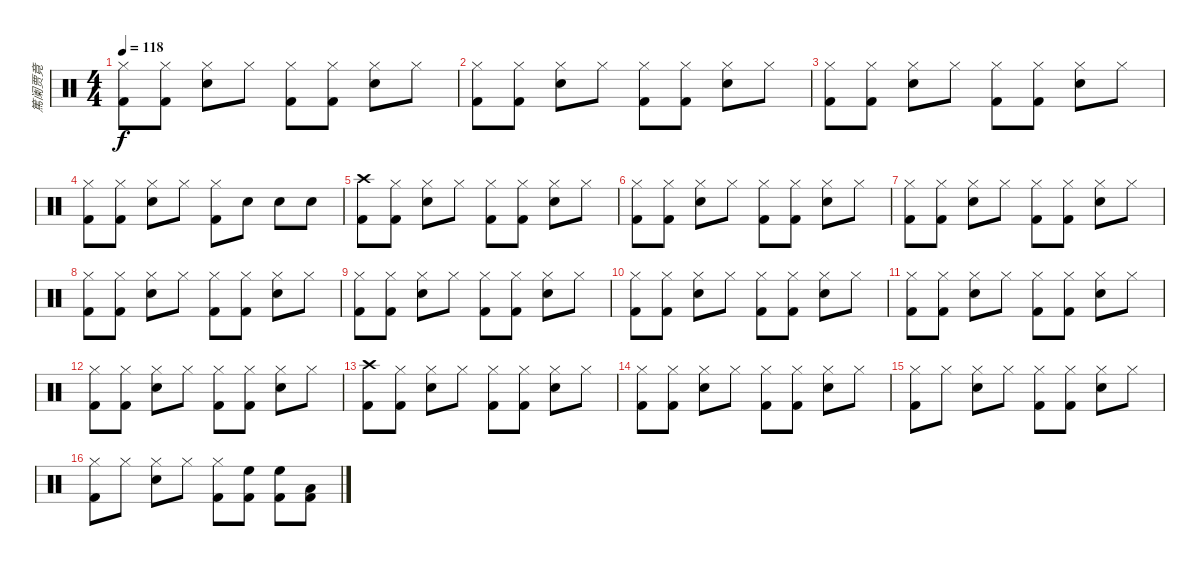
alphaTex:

\track ("篤阑贾竟" "篤阑贾竟") {instrument percussion}
\staff {score}
\articulation defaults
\ts (4 4)
\tempo 118
\clef neutral
\ks c
("Hi-Hat (closed)" "Kick (hit) 2").8{dy f} ("Hi-Hat (closed)" "Kick (hit) 2").8 ("Hi-Hat (closed)" "Snare (hit) 2").8 "Hi-Hat (closed)".8 ("Hi-Hat (closed)" "Kick (hit) 2").8 ("Hi-Hat (closed)" "Kick (hit) 2").8 ("Hi-Hat (closed)" "Snare (hit) 2").8 "Hi-Hat (closed)".8 |
("Hi-Hat (closed)" "Kick (hit) 2").8 ("Hi-Hat (closed)" "Kick (hit) 2").8 ("Hi-Hat (closed)" "Snare (hit) 2").8 "Hi-Hat (closed)".8 ("Hi-Hat (closed)" "Kick (hit) 2").8 ("Hi-Hat (closed)" "Kick (hit) 2").8 ("Hi-Hat (closed)" "Snare (hit) 2").8 "Hi-Hat (closed)".8 |
("Hi-Hat (closed)" "Kick (hit) 2").8 ("Hi-Hat (closed)" "Kick (hit) 2").8 ("Hi-Hat (closed)" "Snare (hit) 2").8 "Hi-Hat (closed)".8 ("Hi-Hat (closed)" "Kick (hit) 2").8 ("Hi-Hat (closed)" "Kick (hit) 2").8 ("Hi-Hat (closed)" "Snare (hit) 2").8 "Hi-Hat (closed)".8 |
("Hi-Hat (closed)" "Kick (hit) 2").8 ("Hi-Hat (closed)" "Kick (hit) 2").8 ("Hi-Hat (closed)" "Snare (hit) 2").8 "Hi-Hat (closed)".8 ("Hi-Hat (closed)" "Kick (hit) 2").8 "Snare (hit) 2".8 "Snare (hit) 2".8 "Snare (hit) 2".8 |
("Crash high (hit)" "Kick (hit) 2").8 ("Hi-Hat (closed)" "Kick (hit) 2").8 ("Hi-Hat (closed)" "Snare (hit) 2").8 "Hi-Hat (closed)".8 ("Hi-Hat (closed)" "Kick (hit) 2").8 ("Hi-Hat (closed)" "Kick (hit) 2").8 ("Hi-Hat (closed)" "Snare (hit) 2").8 "Hi-Hat (closed)".8 |
("Hi-Hat (closed)" "Kick (hit) 2").8 ("Hi-Hat (closed)" "Kick (hit) 2").8 ("Hi-Hat (closed)" "Snare (hit) 2").8 "Hi-Hat (closed)".8 ("Hi-Hat (closed)" "Kick (hit) 2").8 ("Hi-Hat (closed)" "Kick (hit) 2").8 ("Hi-Hat (closed)" "Snare (hit) 2").8 "Hi-Hat (closed)".8 |
("Hi-Hat (closed)" "Kick (hit) 2").8 ("Hi-Hat (closed)" "Kick (hit) 2").8 ("Hi-Hat (closed)" "Snare (hit) 2").8 "Hi-Hat (closed)".8 ("Hi-Hat (closed)" "Kick (hit) 2").8 ("Hi-Hat (closed)" "Kick (hit) 2").8 ("Hi-Hat (closed)" "Snare (hit) 2").8 "Hi-Hat (closed)".8 |
("Hi-Hat (closed)" "Kick (hit) 2").8 ("Hi-Hat (closed)" "Kick (hit) 2").8 ("Hi-Hat (closed)" "Snare (hit) 2").8 "Hi-Hat (closed)".8 ("Hi-Hat (closed)" "Kick (hit) 2").8 ("Hi-Hat (closed)" "Kick (hit) 2").8 ("Hi-Hat (closed)" "Snare (hit) 2").8 "Hi-Hat (closed)".8 |
("Hi-Hat (closed)" "Kick (hit) 2").8 ("Hi-Hat (closed)" "Kick (hit) 2").8 ("Hi-Hat (closed)" "Snare (hit) 2").8 "Hi-Hat (closed)".8 ("Hi-Hat (closed)" "Kick (hit) 2").8 ("Hi-Hat (closed)" "Kick (hit) 2").8 ("Hi-Hat (closed)" "Snare (hit) 2").8 "Hi-Hat (closed)".8 |
("Hi-Hat (closed)" "Kick (hit) 2").8 ("Hi-Hat (closed)" "Kick (hit) 2").8 ("Hi-Hat (closed)" "Snare (hit) 2").8 "Hi-Hat (closed)".8 ("Hi-Hat (closed)" "Kick (hit) 2").8 ("Hi-Hat (closed)" "Kick (hit) 2").8 ("Hi-Hat (closed)" "Snare (hit) 2").8 "Hi-Hat (closed)".8 |
("Hi-Hat (closed)" "Kick (hit) 2").8 ("Hi-Hat (closed)" "Kick (hit) 2").8 ("Hi-Hat (closed)" "Snare (hit) 2").8 "Hi-Hat (closed)".8 ("Hi-Hat (closed)" "Kick (hit) 2").8 ("Hi-Hat (closed)" "Kick (hit) 2").8 ("Hi-Hat (closed)" "Snare (hit) 2").8 "Hi-Hat (closed)".8 |
("Hi-Hat (closed)" "Kick (hit) 2").8 ("Hi-Hat (closed)" "Kick (hit) 2").8 ("Hi-Hat (closed)" "Snare (hit) 2").8 "Hi-Hat (closed)".8 ("Hi-Hat (closed)" "Kick (hit) 2").8 ("Hi-Hat (closed)" "Kick (hit) 2").8 ("Hi-Hat (closed)" "Snare (hit) 2").8 "Hi-Hat (closed)".8 |
("Crash high (hit)" "Kick (hit) 2").8 ("Hi-Hat (closed)" "Kick (hit) 2").8 ("Hi-Hat (closed)" "Snare (hit) 2").8 "Hi-Hat (closed)".8 ("Hi-Hat (closed)" "Kick (hit) 2").8 ("Hi-Hat (closed)" "Kick (hit) 2").8 ("Hi-Hat (closed)" "Snare (hit) 2").8 "Hi-Hat (closed)".8 |
("Hi-Hat (closed)" "Kick (hit) 2").8 ("Hi-Hat (closed)" "Kick (hit) 2").8 ("Hi-Hat (closed)" "Snare (hit) 2").8 "Hi-Hat (closed)".8 ("Hi-Hat (closed)" "Kick (hit) 2").8 ("Hi-Hat (closed)" "Kick (hit) 2").8 ("Hi-Hat (closed)" "Snare (hit) 2").8 "Hi-Hat (closed)".8 |
("Hi-Hat (closed)" "Kick (hit) 2").8 "Hi-Hat (closed)".8 ("Hi-Hat (closed)" "Snare (hit) 2").8 "Hi-Hat (closed)".8 ("Hi-Hat (closed)" "Kick (hit) 2").8 ("Hi-Hat (closed)" "Kick (hit) 2").8 ("Hi-Hat (closed)" "Snare (hit) 2").8 "Hi-Hat (closed)".8 |
("Hi-Hat (closed)" "Kick (hit) 2").8 "Hi-Hat (closed)".8 ("Hi-Hat (closed)" "Snare (hit) 2").8 "Hi-Hat (closed)".8 ("Hi-Hat (closed)" "Kick (hit) 2").8 ("High Floor Tom (hit)" "Kick (hit) 2").8 ("High Floor Tom (hit)" "Kick (hit) 2").8 ("Low Tom (hit)" "Kick (hit) 2").8
